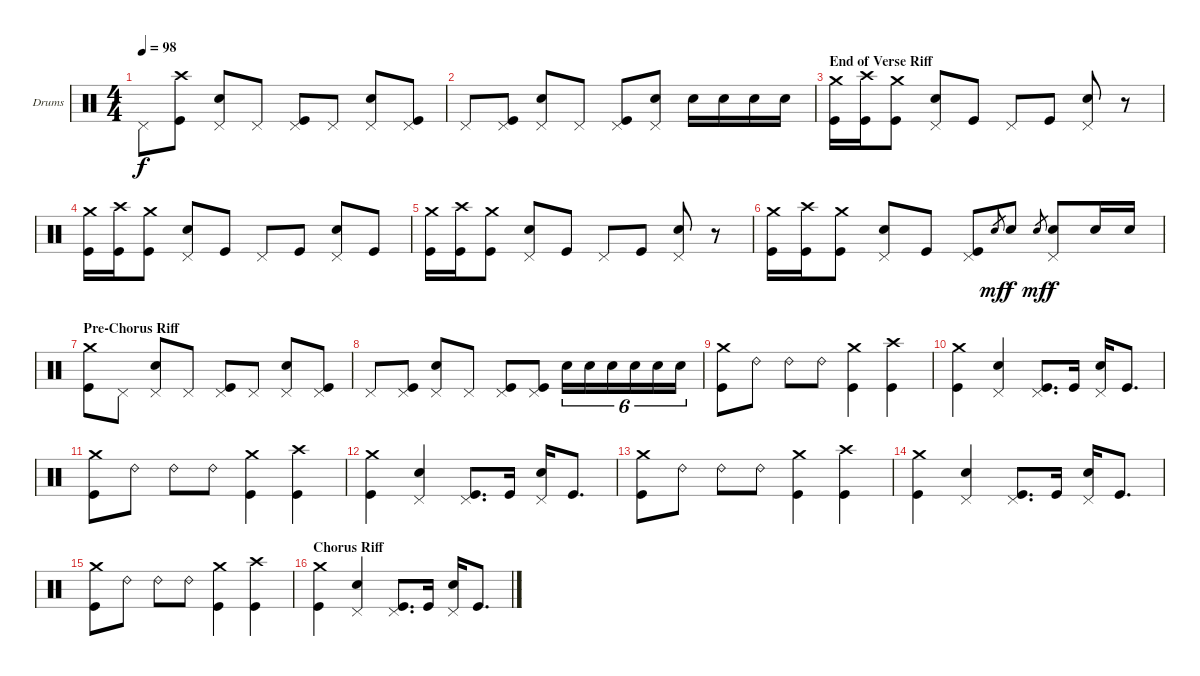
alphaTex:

\bracketExtendMode groupsimilarinstruments
\firstSystemTrackNameOrientation horizontal
\otherSystemsTrackNameOrientation horizontal
\track ("Drumkit" "Drums") {instrument percussion}
\staff {score}
\articulation defaults
\ts (4 4)
\tempo 98
\clef neutral
\ks c "Pedal Hi-Hat (hit)".8{dy f}
("Crash high (hit)" "Kick (hit)").8 ("Pedal Hi-Hat (hit)" "Snare (hit) 2").8 "Pedal Hi-Hat (hit)".8 ("Pedal Hi-Hat (hit)" "Kick (hit)").8 "Pedal Hi-Hat (hit)".8 ("Pedal Hi-Hat (hit)" "Snare (hit) 2").8 ("Pedal Hi-Hat (hit)" "Kick (hit)").8 |
"Pedal Hi-Hat (hit)".8 ("Pedal Hi-Hat (hit)" "Kick (hit)").8 ("Pedal Hi-Hat (hit)" "Snare (hit) 2").8 "Pedal Hi-Hat (hit)".8 ("Pedal Hi-Hat (hit)" "Kick (hit)").8 ("Pedal Hi-Hat (hit)" "Snare (hit) 2").8 "Snare (hit) 2".16 "Snare (hit) 2".16 "Snare (hit) 2".16 "Snare (hit) 2".16 |
\section ("" "End of Verse Riff")
("Crash medium (hit)" "Kick (hit)").16 ("Crash high (hit)" "Kick (hit)").16 ("Crash medium (hit)" "Kick (hit)").8 ("Pedal Hi-Hat (hit)" "Snare (hit) 2").8 "Kick (hit)".8 "Pedal Hi-Hat (hit)".8 "Kick (hit)".8 ("Pedal Hi-Hat (hit)" "Snare (hit) 2").8 r.8 |
("Crash medium (hit)" "Kick (hit)").16 ("Crash high (hit)" "Kick (hit)").16 ("Crash medium (hit)" "Kick (hit)").8 ("Pedal Hi-Hat (hit)" "Snare (hit) 2").8 "Kick (hit)".8 "Pedal Hi-Hat (hit)".8 "Kick (hit)".8 ("Pedal Hi-Hat (hit)" "Snare (hit) 2").8 "Kick (hit)".8 |
("Crash medium (hit)" "Kick (hit)").16 ("Crash high (hit)" "Kick (hit)").16 ("Crash medium (hit)" "Kick (hit)").8 ("Pedal Hi-Hat (hit)" "Snare (hit) 2").8 "Kick (hit)".8 "Pedal Hi-Hat (hit)".8 "Kick (hit)".8 ("Pedal Hi-Hat (hit)" "Snare (hit) 2").8 r.8 |
("Crash medium (hit)" "Kick (hit)").16 ("Crash high (hit)" "Kick (hit)").16 ("Crash medium (hit)" "Kick (hit)").8 ("Pedal Hi-Hat (hit)" "Snare (hit) 2").8 "Kick (hit)".8 ("Pedal Hi-Hat (hit)" "Kick (hit)").8 "Snare (hit) 2".8{gr dy mf} "Snare (hit) 2".8{dy f} "Snare (hit) 2".8{gr dy mf} ("Pedal Hi-Hat (hit)" "Snare (hit) 2").8{dy f} "Snare (hit) 2".16 "Snare (hit) 2".16 |
\section ("" "Pre-Chorus Riff")
("Crash medium (hit)" "Kick (hit)").8 "Pedal Hi-Hat (hit)".8 ("Pedal Hi-Hat (hit)" "Snare (hit) 2").8 "Pedal Hi-Hat (hit)".8 ("Pedal Hi-Hat (hit)" "Kick (hit)").8 "Pedal Hi-Hat (hit)".8 ("Pedal Hi-Hat (hit)" "Snare (hit) 2").8 ("Pedal Hi-Hat (hit)" "Kick (hit)").8 |
"Pedal Hi-Hat (hit)".8 ("Pedal Hi-Hat (hit)" "Kick (hit)").8 ("Pedal Hi-Hat (hit)" "Snare (hit) 2").8 "Pedal Hi-Hat (hit)".8 ("Pedal Hi-Hat (hit)" "Kick (hit)").8 ("Pedal Hi-Hat (hit)" "Kick (hit)").8 "Snare (hit) 2".16{tu (6 4)} "Snare (hit) 2".16{tu (6 4)} "Snare (hit) 2".16{tu (6 4)} "Snare (hit) 2".16{tu (6 4)} "Snare (hit) 2".16{tu (6 4)} "Snare (hit) 2".16{tu (6 4)} |
("Crash medium (hit)" "Kick (hit)").8 "Ride (bell) 2".8 "Ride (bell) 2".8 "Ride (bell) 2".8 ("Crash medium (hit)" "Kick (hit)").4 ("Crash high (hit)" "Kick (hit)").4 |
("Crash medium (hit)" "Kick (hit)").4 ("Pedal Hi-Hat (hit)" "Snare (hit) 2").4 ("Pedal Hi-Hat (hit)" "Kick (hit)").8{d} "Kick (hit)".16 ("Pedal Hi-Hat (hit)" "Snare (hit) 2").16 "Kick (hit)".8{d} |
("Crash medium (hit)" "Kick (hit)").8 "Ride (bell) 2".8 "Ride (bell) 2".8 "Ride (bell) 2".8 ("Crash medium (hit)" "Kick (hit)").4 ("Crash high (hit)" "Kick (hit)").4 |
("Crash medium (hit)" "Kick (hit)").4 ("Pedal Hi-Hat (hit)" "Snare (hit) 2").4 ("Pedal Hi-Hat (hit)" "Kick (hit)").8{d} "Kick (hit)".16 ("Pedal Hi-Hat (hit)" "Snare (hit) 2").16 "Kick (hit)".8{d} |
("Crash medium (hit)" "Kick (hit)").8 "Ride (bell) 2".8 "Ride (bell) 2".8 "Ride (bell) 2".8 ("Crash medium (hit)" "Kick (hit)").4 ("Crash high (hit)" "Kick (hit)").4 |
("Crash medium (hit)" "Kick (hit)").4 ("Pedal Hi-Hat (hit)" "Snare (hit) 2").4 ("Pedal Hi-Hat (hit)" "Kick (hit)").8{d} "Kick (hit)".16 ("Pedal Hi-Hat (hit)" "Snare (hit) 2").16 "Kick (hit)".8{d} |
("Crash medium (hit)" "Kick (hit)").8 "Ride (bell) 2".8 "Ride (bell) 2".8 "Ride (bell) 2".8 ("Crash medium (hit)" "Kick (hit)").4 ("Crash high (hit)" "Kick (hit)").4 |
\section ("" "Chorus Riff")
("Crash medium (hit)" "Kick (hit)").4 ("Pedal Hi-Hat (hit)" "Snare (hit) 2").4 ("Pedal Hi-Hat (hit)" "Kick (hit)").8{d} "Kick (hit)".16 ("Pedal Hi-Hat (hit)" "Snare (hit) 2").16 "Kick (hit)".8{d}
